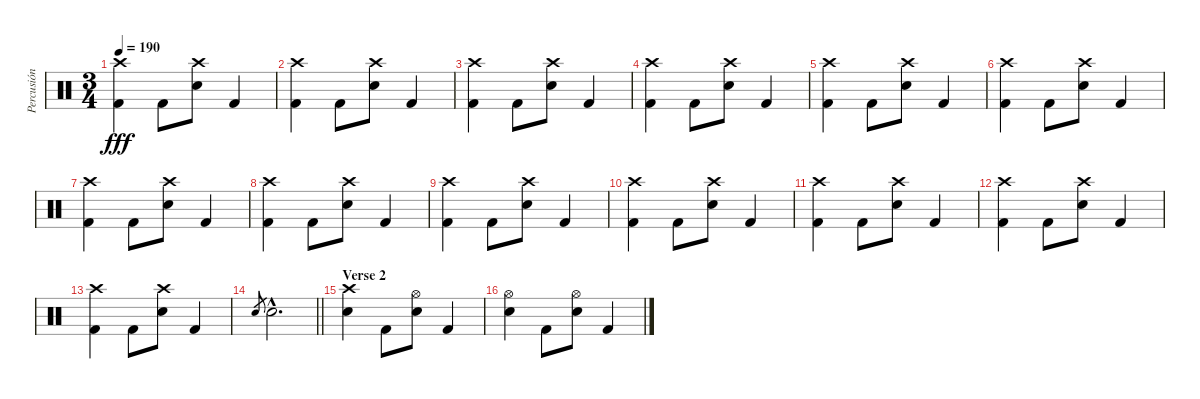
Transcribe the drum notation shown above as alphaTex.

\track ("Percusión" "Percusión") {instrument percussion}
\staff {score}
\articulation defaults
\ts (3 4)
\tempo 190
\clef neutral
\ks c
("Crash high (hit)" "Kick (hit) 2").4{dy fff} "Kick (hit) 2".8 ("Crash high (hit)" "Electric Snare (hit)").8 "Kick (hit) 2".4 |
("Crash high (hit)" "Kick (hit) 2").4 "Kick (hit) 2".8 ("Crash high (hit)" "Electric Snare (hit)").8 "Kick (hit) 2".4 |
("Crash high (hit)" "Kick (hit) 2").4 "Kick (hit) 2".8 ("Crash high (hit)" "Electric Snare (hit)").8 "Kick (hit) 2".4 |
("Crash high (hit)" "Kick (hit) 2").4 "Kick (hit) 2".8 ("Crash high (hit)" "Electric Snare (hit)").8 "Kick (hit) 2".4 |
("Crash high (hit)" "Kick (hit) 2").4 "Kick (hit) 2".8 ("Crash high (hit)" "Electric Snare (hit)").8 "Kick (hit) 2".4 |
("Crash high (hit)" "Kick (hit) 2").4 "Kick (hit) 2".8 ("Crash high (hit)" "Electric Snare (hit)").8 "Kick (hit) 2".4 |
("Crash high (hit)" "Kick (hit) 2").4 "Kick (hit) 2".8 ("Crash high (hit)" "Electric Snare (hit)").8 "Kick (hit) 2".4 |
("Crash high (hit)" "Kick (hit) 2").4 "Kick (hit) 2".8 ("Crash high (hit)" "Electric Snare (hit)").8 "Kick (hit) 2".4 |
("Crash high (hit)" "Kick (hit) 2").4 "Kick (hit) 2".8 ("Crash high (hit)" "Electric Snare (hit)").8 "Kick (hit) 2".4 |
("Crash high (hit)" "Kick (hit) 2").4 "Kick (hit) 2".8 ("Crash high (hit)" "Electric Snare (hit)").8 "Kick (hit) 2".4 |
("Crash high (hit)" "Kick (hit) 2").4 "Kick (hit) 2".8 ("Crash high (hit)" "Electric Snare (hit)").8 "Kick (hit) 2".4 |
("Crash high (hit)" "Kick (hit) 2").4 "Kick (hit) 2".8 ("Crash high (hit)" "Electric Snare (hit)").8 "Kick (hit) 2".4 |
("Crash high (hit)" "Kick (hit) 2").4 "Kick (hit) 2".8 ("Crash high (hit)" "Electric Snare (hit)").8 "Kick (hit) 2".4 |
\barLineRight lightlight "Electric Snare (hit)".8{gr} "Electric Snare (hit)"{hac}.2{d}
|
\section ("" "Verse 2")
("Crash high (hit)" "Electric Snare (hit)").4 "Kick (hit) 2".8 ("Hi-Hat (open)" "Electric Snare (hit)").8 "Kick (hit) 2".4 |
("Hi-Hat (open)" "Electric Snare (hit)").4 "Kick (hit) 2".8 ("Hi-Hat (open)" "Electric Snare (hit)").8 "Kick (hit) 2".4
